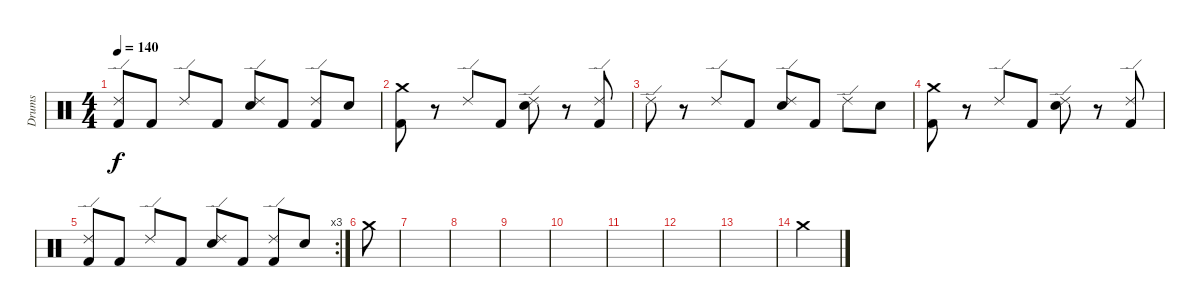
\track ("Drums" "Drums") {instrument percussion}
\staff {score}
\articulation defaults
\ts (4 4)
\tempo 140
\clef neutral
\ks c
("Ride (edge) 2" "Kick (hit) 2").8{dy f} "Kick (hit) 2".8 "Ride (edge) 2".8 "Kick (hit) 2".8 ("Ride (edge) 2" "Electric Snare (hit)").8 "Kick (hit) 2".8 ("Ride (edge) 2" "Kick (hit) 2").8 "Electric Snare (hit)".8 |
("Crash medium (hit)" "Kick (hit) 2").8 r.8 "Ride (edge) 2".8 "Kick (hit) 2".8 ("Ride (edge) 2" "Electric Snare (hit)").8 r.8 ("Ride (edge) 2" "Kick (hit) 2").8 |
"Ride (edge) 2".8 r.8 "Ride (edge) 2".8 "Kick (hit) 2".8 ("Ride (edge) 2" "Electric Snare (hit)").8 "Kick (hit) 2".8 "Ride (edge) 2".8 "Electric Snare (hit)".8 |
("Crash medium (hit)" "Kick (hit) 2").8 r.8 "Ride (edge) 2".8 "Kick (hit) 2".8 ("Ride (edge) 2" "Electric Snare (hit)").8 r.8 ("Ride (edge) 2" "Kick (hit) 2").8 |
\rc 3
("Ride (edge) 2" "Kick (hit) 2").8 "Kick (hit) 2".8 "Ride (edge) 2".8 "Kick (hit) 2".8 ("Ride (edge) 2" "Electric Snare (hit)").8 "Kick (hit) 2".8 ("Ride (edge) 2" "Kick (hit) 2").8 "Electric Snare (hit)".8 |
"Crash medium (hit)".8 |
|
|
|
|
|
|
|
"Crash medium (hit)".4
